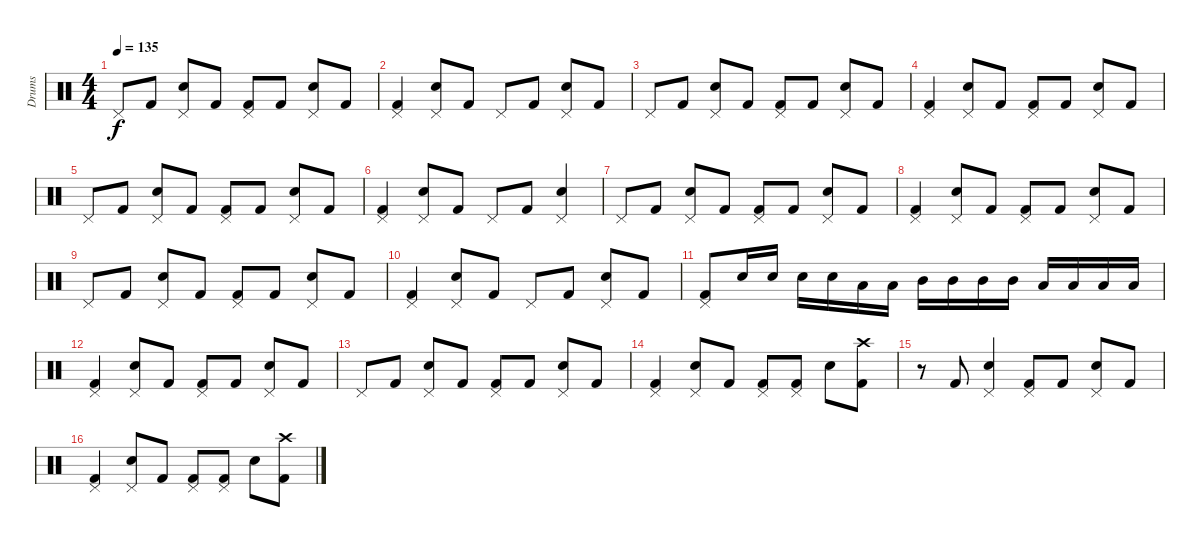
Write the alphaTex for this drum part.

\track ("Drums" "Drums") {instrument percussion}
\staff {score}
\articulation defaults
\ts (4 4)
\tempo 135
\clef neutral
\ks c "Pedal Hi-Hat (hit)".8{dy f} "Kick (hit) 2".8
("Pedal Hi-Hat (hit)" "Electric Snare (hit)").8 "Kick (hit) 2".8 ("Pedal Hi-Hat (hit)" "Kick (hit) 2").8 "Kick (hit) 2".8 ("Pedal Hi-Hat (hit)" "Electric Snare (hit)").8 "Kick (hit) 2".8 |
("Pedal Hi-Hat (hit)" "Kick (hit) 2").4 ("Pedal Hi-Hat (hit)" "Electric Snare (hit)").8 "Kick (hit) 2".8 "Pedal Hi-Hat (hit)".8 "Kick (hit) 2".8 ("Pedal Hi-Hat (hit)" "Electric Snare (hit)").8 "Kick (hit) 2".8 |
"Pedal Hi-Hat (hit)".8 "Kick (hit) 2".8 ("Pedal Hi-Hat (hit)" "Electric Snare (hit)").8 "Kick (hit) 2".8 ("Pedal Hi-Hat (hit)" "Kick (hit) 2").8 "Kick (hit) 2".8 ("Pedal Hi-Hat (hit)" "Electric Snare (hit)").8 "Kick (hit) 2".8 |
("Pedal Hi-Hat (hit)" "Kick (hit) 2").4 ("Pedal Hi-Hat (hit)" "Electric Snare (hit)").8 "Kick (hit) 2".8 ("Pedal Hi-Hat (hit)" "Kick (hit) 2").8 "Kick (hit) 2".8 ("Pedal Hi-Hat (hit)" "Electric Snare (hit)").8 "Kick (hit) 2".8 |
"Pedal Hi-Hat (hit)".8 "Kick (hit) 2".8 ("Pedal Hi-Hat (hit)" "Electric Snare (hit)").8 "Kick (hit) 2".8 ("Pedal Hi-Hat (hit)" "Kick (hit) 2").8 "Kick (hit) 2".8 ("Pedal Hi-Hat (hit)" "Electric Snare (hit)").8 "Kick (hit) 2".8 |
("Pedal Hi-Hat (hit)" "Kick (hit) 2").4 ("Pedal Hi-Hat (hit)" "Electric Snare (hit)").8 "Kick (hit) 2".8 "Pedal Hi-Hat (hit)".8 "Kick (hit) 2".8 ("Pedal Hi-Hat (hit)" "Electric Snare (hit)").4 |
"Pedal Hi-Hat (hit)".8 "Kick (hit) 2".8 ("Pedal Hi-Hat (hit)" "Electric Snare (hit)").8 "Kick (hit) 2".8 ("Pedal Hi-Hat (hit)" "Kick (hit) 2").8 "Kick (hit) 2".8 ("Pedal Hi-Hat (hit)" "Electric Snare (hit)").8 "Kick (hit) 2".8 |
("Pedal Hi-Hat (hit)" "Kick (hit) 2").4 ("Pedal Hi-Hat (hit)" "Electric Snare (hit)").8 "Kick (hit) 2".8 ("Pedal Hi-Hat (hit)" "Kick (hit) 2").8 "Kick (hit) 2".8 ("Pedal Hi-Hat (hit)" "Electric Snare (hit)").8 "Kick (hit) 2".8 |
"Pedal Hi-Hat (hit)".8 "Kick (hit) 2".8 ("Pedal Hi-Hat (hit)" "Electric Snare (hit)").8 "Kick (hit) 2".8 ("Pedal Hi-Hat (hit)" "Kick (hit) 2").8 "Kick (hit) 2".8 ("Pedal Hi-Hat (hit)" "Electric Snare (hit)").8 "Kick (hit) 2".8 |
("Pedal Hi-Hat (hit)" "Kick (hit) 2").4 ("Pedal Hi-Hat (hit)" "Electric Snare (hit)").8 "Kick (hit) 2".8 "Pedal Hi-Hat (hit)".8 "Kick (hit) 2".8 ("Pedal Hi-Hat (hit)" "Electric Snare (hit)").8 "Kick (hit) 2".8 |
("Pedal Hi-Hat (hit)" "Kick (hit) 2").8 "Electric Snare (hit)".16 "Electric Snare (hit)".16 "Electric Snare (hit)".16 "Electric Snare (hit)".16 "Low Tom (hit)".16 "Low Tom (hit)".16 "Mid Tom (hit)".16 "Mid Tom (hit)".16 "Mid Tom (hit)".16 "Mid Tom (hit)".16 "Low Floor Tom (hit)".16 "Low Floor Tom (hit)".16 "Low Floor Tom (hit)".16 "Low Floor Tom (hit)".16 |
("Pedal Hi-Hat (hit)" "Kick (hit) 2").4 ("Pedal Hi-Hat (hit)" "Electric Snare (hit)").8 "Kick (hit) 2".8 ("Pedal Hi-Hat (hit)" "Kick (hit) 2").8 "Kick (hit) 2".8 ("Pedal Hi-Hat (hit)" "Electric Snare (hit)").8 "Kick (hit) 2".8 |
"Pedal Hi-Hat (hit)".8 "Kick (hit) 2".8 ("Pedal Hi-Hat (hit)" "Electric Snare (hit)").8 "Kick (hit) 2".8 ("Pedal Hi-Hat (hit)" "Kick (hit) 2").8 "Kick (hit) 2".8 ("Pedal Hi-Hat (hit)" "Electric Snare (hit)").8 "Kick (hit) 2".8 |
("Pedal Hi-Hat (hit)" "Kick (hit) 2").4 ("Pedal Hi-Hat (hit)" "Electric Snare (hit)").8 "Kick (hit) 2".8 ("Pedal Hi-Hat (hit)" "Kick (hit) 2").8 ("Pedal Hi-Hat (hit)" "Kick (hit) 2").8 "Electric Snare (hit)".8 ("Crash high (hit)" "Kick (hit) 2").8 |
r.8 "Kick (hit) 2".8 ("Pedal Hi-Hat (hit)" "Electric Snare (hit)").4 ("Pedal Hi-Hat (hit)" "Kick (hit) 2").8 "Kick (hit) 2".8 ("Pedal Hi-Hat (hit)" "Electric Snare (hit)").8 "Kick (hit) 2".8 |
("Pedal Hi-Hat (hit)" "Kick (hit) 2").4 ("Pedal Hi-Hat (hit)" "Electric Snare (hit)").8 "Kick (hit) 2".8 ("Pedal Hi-Hat (hit)" "Kick (hit) 2").8 ("Pedal Hi-Hat (hit)" "Kick (hit) 2").8 "Electric Snare (hit)".8 ("Crash high (hit)" "Kick (hit) 2").8
